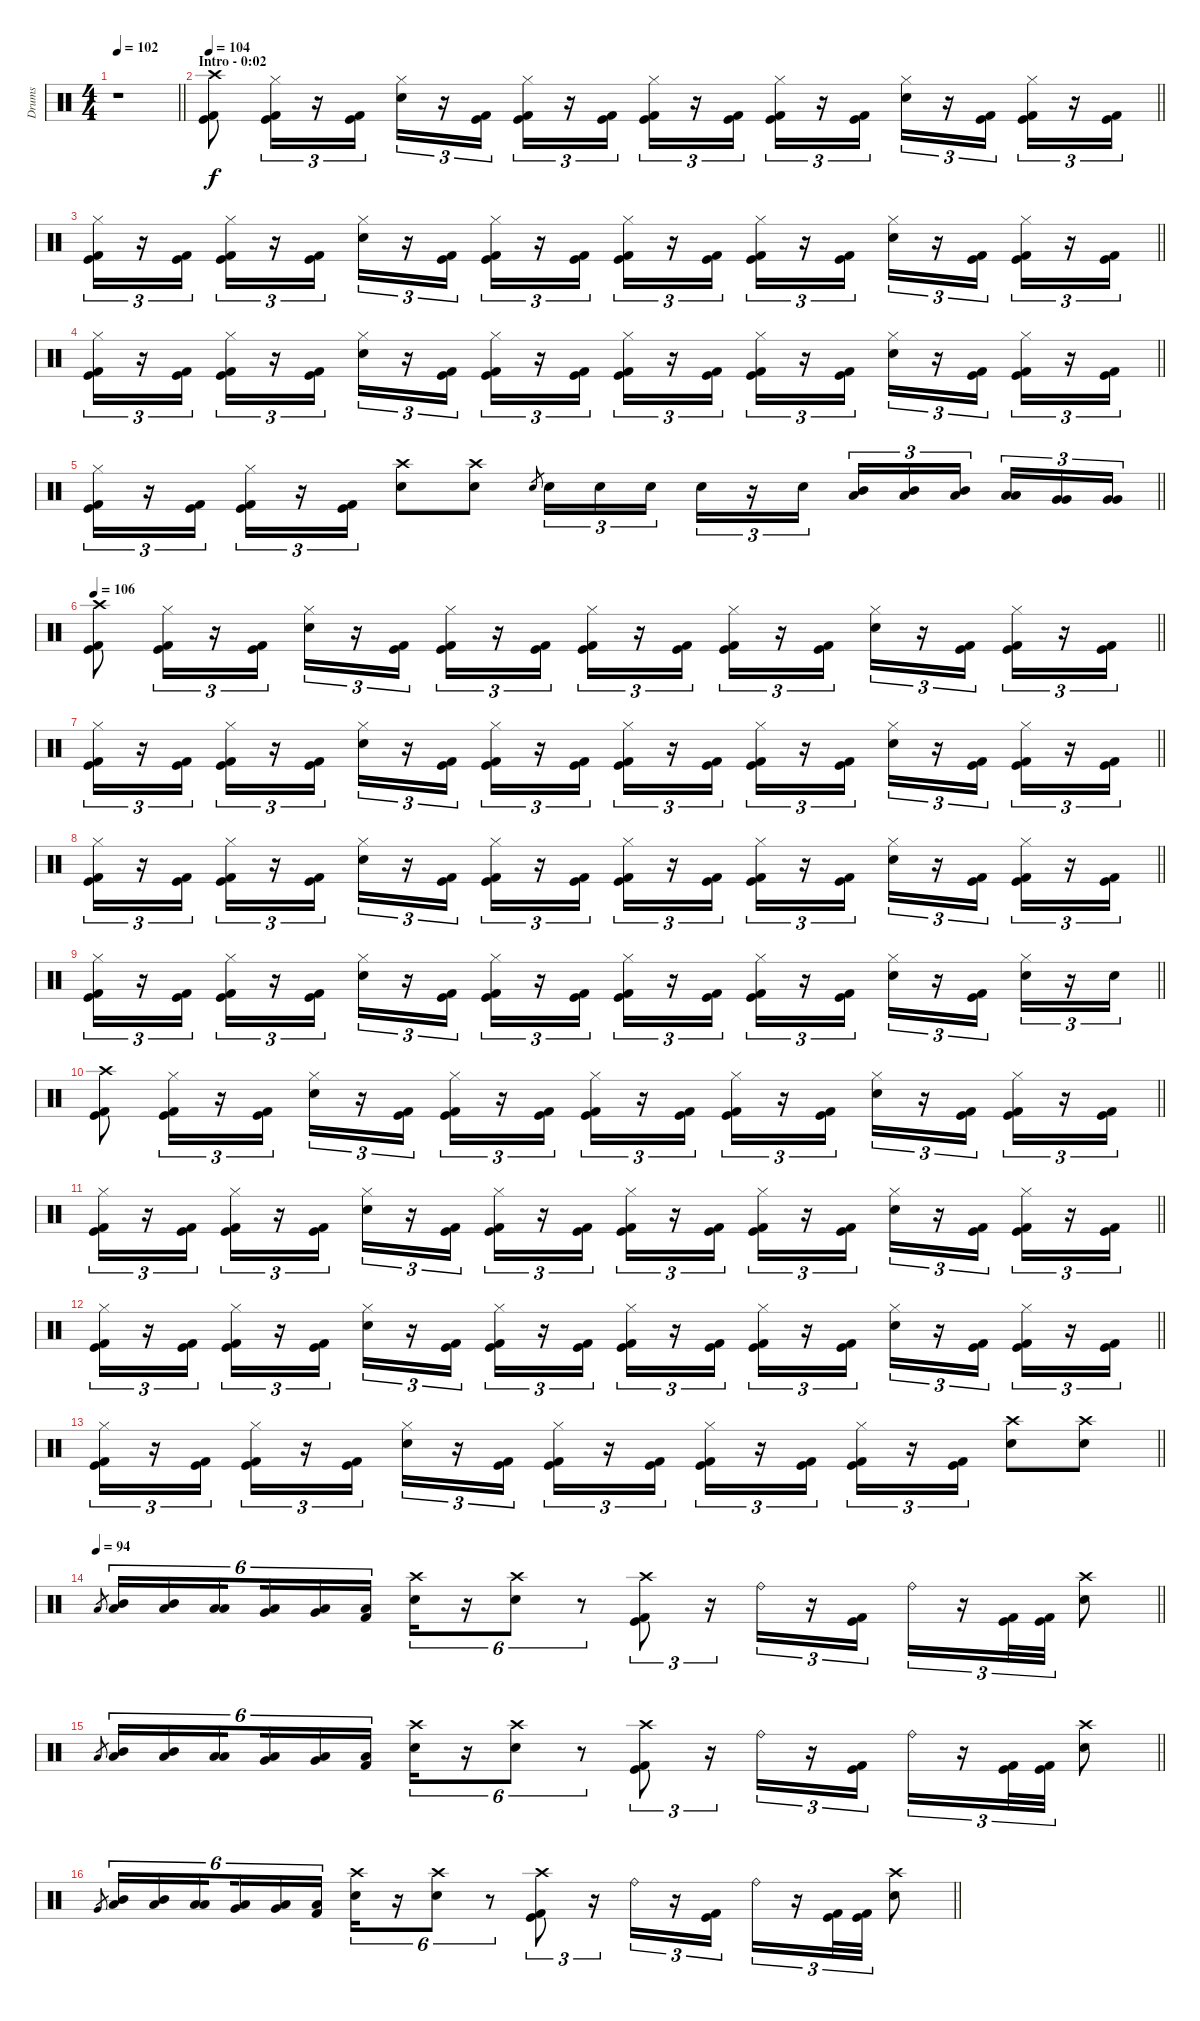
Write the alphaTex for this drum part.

\track ("Drums" "Drums") {instrument percussion}
\staff {score}
\articulation defaults
\ts (4 4)
\tempo 102
\clef neutral
\barLineRight lightlight
\ks c
r.1{dy f} |
\section ("" "Intro - 0:02")
\tempo 104
\barLineRight lightlight
("Crash high (hit)" "Kick (hit)" "Kick (hit) 2").8 ("Hi-Hat (closed)" "Kick (hit)" "Kick (hit) 2").16{tu (3 2)} r.16{tu (3 2)} ("Kick (hit)" "Kick (hit) 2").16{tu (3 2)} ("Hi-Hat (closed)" "Electric Snare (hit)").16{tu (3 2)} r.16{tu (3 2)} ("Kick (hit)" "Kick (hit) 2").16{tu (3 2)} ("Hi-Hat (closed)" "Kick (hit)" "Kick (hit) 2").16{tu (3 2)} r.16{tu (3 2)} ("Kick (hit)" "Kick (hit) 2").16{tu (3 2)} ("Hi-Hat (closed)" "Kick (hit)" "Kick (hit) 2").16{tu (3 2)} r.16{tu (3 2)} ("Kick (hit)" "Kick (hit) 2").16{tu (3 2)} ("Hi-Hat (closed)" "Kick (hit)" "Kick (hit) 2").16{tu (3 2)} r.16{tu (3 2)} ("Kick (hit)" "Kick (hit) 2").16{tu (3 2)} ("Hi-Hat (closed)" "Electric Snare (hit)").16{tu (3 2)} r.16{tu (3 2)} ("Kick (hit)" "Kick (hit) 2").16{tu (3 2)} ("Hi-Hat (closed)" "Kick (hit)" "Kick (hit) 2").16{tu (3 2)} r.16{tu (3 2)} ("Kick (hit)" "Kick (hit) 2").16{tu (3 2)} |
\barLineRight lightlight
("Hi-Hat (closed)" "Kick (hit)" "Kick (hit) 2").16{tu (3 2)} r.16{tu (3 2)} ("Kick (hit)" "Kick (hit) 2").16{tu (3 2)} ("Hi-Hat (closed)" "Kick (hit)" "Kick (hit) 2").16{tu (3 2)} r.16{tu (3 2)} ("Kick (hit)" "Kick (hit) 2").16{tu (3 2)} ("Hi-Hat (closed)" "Electric Snare (hit)").16{tu (3 2)} r.16{tu (3 2)} ("Kick (hit)" "Kick (hit) 2").16{tu (3 2)} ("Hi-Hat (closed)" "Kick (hit)" "Kick (hit) 2").16{tu (3 2)} r.16{tu (3 2)} ("Kick (hit)" "Kick (hit) 2").16{tu (3 2)} ("Hi-Hat (closed)" "Kick (hit)" "Kick (hit) 2").16{tu (3 2)} r.16{tu (3 2)} ("Kick (hit)" "Kick (hit) 2").16{tu (3 2)} ("Hi-Hat (closed)" "Kick (hit)" "Kick (hit) 2").16{tu (3 2)} r.16{tu (3 2)} ("Kick (hit)" "Kick (hit) 2").16{tu (3 2)} ("Hi-Hat (closed)" "Electric Snare (hit)").16{tu (3 2)} r.16{tu (3 2)} ("Kick (hit)" "Kick (hit) 2").16{tu (3 2)} ("Hi-Hat (closed)" "Kick (hit)" "Kick (hit) 2").16{tu (3 2)} r.16{tu (3 2)} ("Kick (hit)" "Kick (hit) 2").16{tu (3 2)} |
\barLineRight lightlight
("Hi-Hat (closed)" "Kick (hit)" "Kick (hit) 2").16{tu (3 2)} r.16{tu (3 2)} ("Kick (hit)" "Kick (hit) 2").16{tu (3 2)} ("Hi-Hat (closed)" "Kick (hit)" "Kick (hit) 2").16{tu (3 2)} r.16{tu (3 2)} ("Kick (hit)" "Kick (hit) 2").16{tu (3 2)} ("Hi-Hat (closed)" "Electric Snare (hit)").16{tu (3 2)} r.16{tu (3 2)} ("Kick (hit)" "Kick (hit) 2").16{tu (3 2)} ("Hi-Hat (closed)" "Kick (hit)" "Kick (hit) 2").16{tu (3 2)} r.16{tu (3 2)} ("Kick (hit)" "Kick (hit) 2").16{tu (3 2)} ("Hi-Hat (closed)" "Kick (hit)" "Kick (hit) 2").16{tu (3 2)} r.16{tu (3 2)} ("Kick (hit)" "Kick (hit) 2").16{tu (3 2)} ("Hi-Hat (closed)" "Kick (hit)" "Kick (hit) 2").16{tu (3 2)} r.16{tu (3 2)} ("Kick (hit)" "Kick (hit) 2").16{tu (3 2)} ("Hi-Hat (closed)" "Electric Snare (hit)").16{tu (3 2)} r.16{tu (3 2)} ("Kick (hit)" "Kick (hit) 2").16{tu (3 2)} ("Hi-Hat (closed)" "Kick (hit)" "Kick (hit) 2").16{tu (3 2)} r.16{tu (3 2)} ("Kick (hit)" "Kick (hit) 2").16{tu (3 2)} |
\barLineRight lightlight
("Hi-Hat (closed)" "Kick (hit)" "Kick (hit) 2").16{tu (3 2)} r.16{tu (3 2)} ("Kick (hit)" "Kick (hit) 2").16{tu (3 2)} ("Hi-Hat (closed)" "Kick (hit)" "Kick (hit) 2").16{tu (3 2)} r.16{tu (3 2)} ("Kick (hit)" "Kick (hit) 2").16{tu (3 2)} ("Crash high (hit)" "Electric Snare (hit)").8 ("Crash high (hit)" "Electric Snare (hit)").8 "Electric Snare (hit)".8{gr} "Electric Snare (hit)".16{tu (3 2)} "Electric Snare (hit)".16{tu (3 2)} "Electric Snare (hit)".16{tu (3 2) beam splitsecondary} "Electric Snare (hit)".16{tu (3 2)} r.16{tu (3 2)} "Electric Snare (hit)".16{tu (3 2)} ("Mid Tom (hit)" "Low Tom (hit)").16{tu (3 2)} ("Mid Tom (hit)" "Low Tom (hit)").16{tu (3 2)} ("Mid Tom (hit)" "Low Tom (hit)").16{tu (3 2) beam splitsecondary} ("Low Tom (hit)" "Low Tom (hit)").16{tu (3 2)} ("Very Low Tom (hit)" "Very Low Tom (hit)").16{tu (3 2)} ("Very Low Tom (hit)" "Very Low Tom (hit)").16{tu (3 2)} |
\tempo 106
\barLineRight lightlight
("Crash high (hit)" "Kick (hit)" "Kick (hit) 2").8 ("Hi-Hat (closed)" "Kick (hit)" "Kick (hit) 2").16{tu (3 2)} r.16{tu (3 2)} ("Kick (hit)" "Kick (hit) 2").16{tu (3 2)} ("Hi-Hat (closed)" "Electric Snare (hit)").16{tu (3 2)} r.16{tu (3 2)} ("Kick (hit)" "Kick (hit) 2").16{tu (3 2)} ("Hi-Hat (closed)" "Kick (hit)" "Kick (hit) 2").16{tu (3 2)} r.16{tu (3 2)} ("Kick (hit)" "Kick (hit) 2").16{tu (3 2)} ("Hi-Hat (closed)" "Kick (hit)" "Kick (hit) 2").16{tu (3 2)} r.16{tu (3 2)} ("Kick (hit)" "Kick (hit) 2").16{tu (3 2)} ("Hi-Hat (closed)" "Kick (hit)" "Kick (hit) 2").16{tu (3 2)} r.16{tu (3 2)} ("Kick (hit)" "Kick (hit) 2").16{tu (3 2)} ("Hi-Hat (closed)" "Electric Snare (hit)").16{tu (3 2)} r.16{tu (3 2)} ("Kick (hit)" "Kick (hit) 2").16{tu (3 2)} ("Hi-Hat (closed)" "Kick (hit)" "Kick (hit) 2").16{tu (3 2)} r.16{tu (3 2)} ("Kick (hit)" "Kick (hit) 2").16{tu (3 2)} |
\barLineRight lightlight
("Hi-Hat (closed)" "Kick (hit)" "Kick (hit) 2").16{tu (3 2)} r.16{tu (3 2)} ("Kick (hit)" "Kick (hit) 2").16{tu (3 2)} ("Hi-Hat (closed)" "Kick (hit)" "Kick (hit) 2").16{tu (3 2)} r.16{tu (3 2)} ("Kick (hit)" "Kick (hit) 2").16{tu (3 2)} ("Hi-Hat (closed)" "Electric Snare (hit)").16{tu (3 2)} r.16{tu (3 2)} ("Kick (hit)" "Kick (hit) 2").16{tu (3 2)} ("Hi-Hat (closed)" "Kick (hit)" "Kick (hit) 2").16{tu (3 2)} r.16{tu (3 2)} ("Kick (hit)" "Kick (hit) 2").16{tu (3 2)} ("Hi-Hat (closed)" "Kick (hit)" "Kick (hit) 2").16{tu (3 2)} r.16{tu (3 2)} ("Kick (hit)" "Kick (hit) 2").16{tu (3 2)} ("Hi-Hat (closed)" "Kick (hit)" "Kick (hit) 2").16{tu (3 2)} r.16{tu (3 2)} ("Kick (hit)" "Kick (hit) 2").16{tu (3 2)} ("Hi-Hat (closed)" "Electric Snare (hit)").16{tu (3 2)} r.16{tu (3 2)} ("Kick (hit)" "Kick (hit) 2").16{tu (3 2)} ("Hi-Hat (closed)" "Kick (hit)" "Kick (hit) 2").16{tu (3 2)} r.16{tu (3 2)} ("Kick (hit)" "Kick (hit) 2").16{tu (3 2)} |
\barLineRight lightlight
("Hi-Hat (closed)" "Kick (hit)" "Kick (hit) 2").16{tu (3 2)} r.16{tu (3 2)} ("Kick (hit)" "Kick (hit) 2").16{tu (3 2)} ("Hi-Hat (closed)" "Kick (hit)" "Kick (hit) 2").16{tu (3 2)} r.16{tu (3 2)} ("Kick (hit)" "Kick (hit) 2").16{tu (3 2)} ("Hi-Hat (closed)" "Electric Snare (hit)").16{tu (3 2)} r.16{tu (3 2)} ("Kick (hit)" "Kick (hit) 2").16{tu (3 2)} ("Hi-Hat (closed)" "Kick (hit)" "Kick (hit) 2").16{tu (3 2)} r.16{tu (3 2)} ("Kick (hit)" "Kick (hit) 2").16{tu (3 2)} ("Hi-Hat (closed)" "Kick (hit)" "Kick (hit) 2").16{tu (3 2)} r.16{tu (3 2)} ("Kick (hit)" "Kick (hit) 2").16{tu (3 2)} ("Hi-Hat (closed)" "Kick (hit)" "Kick (hit) 2").16{tu (3 2)} r.16{tu (3 2)} ("Kick (hit)" "Kick (hit) 2").16{tu (3 2)} ("Hi-Hat (closed)" "Electric Snare (hit)").16{tu (3 2)} r.16{tu (3 2)} ("Kick (hit)" "Kick (hit) 2").16{tu (3 2)} ("Hi-Hat (closed)" "Kick (hit)" "Kick (hit) 2").16{tu (3 2)} r.16{tu (3 2)} ("Kick (hit)" "Kick (hit) 2").16{tu (3 2)} |
\barLineRight lightlight
("Hi-Hat (closed)" "Kick (hit)" "Kick (hit) 2").16{tu (3 2)} r.16{tu (3 2)} ("Kick (hit)" "Kick (hit) 2").16{tu (3 2)} ("Hi-Hat (closed)" "Kick (hit)" "Kick (hit) 2").16{tu (3 2)} r.16{tu (3 2)} ("Kick (hit)" "Kick (hit) 2").16{tu (3 2)} ("Hi-Hat (closed)" "Electric Snare (hit)").16{tu (3 2)} r.16{tu (3 2)} ("Kick (hit)" "Kick (hit) 2").16{tu (3 2)} ("Hi-Hat (closed)" "Kick (hit)" "Kick (hit) 2").16{tu (3 2)} r.16{tu (3 2)} ("Kick (hit)" "Kick (hit) 2").16{tu (3 2)} ("Hi-Hat (closed)" "Kick (hit)" "Kick (hit) 2").16{tu (3 2)} r.16{tu (3 2)} ("Kick (hit)" "Kick (hit) 2").16{tu (3 2)} ("Hi-Hat (closed)" "Kick (hit)" "Kick (hit) 2").16{tu (3 2)} r.16{tu (3 2)} ("Kick (hit)" "Kick (hit) 2").16{tu (3 2)} ("Hi-Hat (closed)" "Electric Snare (hit)").16{tu (3 2)} r.16{tu (3 2)} ("Kick (hit)" "Kick (hit) 2").16{tu (3 2)} ("Hi-Hat (closed)" "Electric Snare (hit)").16{tu (3 2)} r.16{tu (3 2)} "Electric Snare (hit)".16{tu (3 2)} |
\barLineRight lightlight
("Crash high (hit)" "Kick (hit)" "Kick (hit) 2").8 ("Hi-Hat (closed)" "Kick (hit)" "Kick (hit) 2").16{tu (3 2)} r.16{tu (3 2)} ("Kick (hit)" "Kick (hit) 2").16{tu (3 2)} ("Hi-Hat (closed)" "Electric Snare (hit)").16{tu (3 2)} r.16{tu (3 2)} ("Kick (hit)" "Kick (hit) 2").16{tu (3 2)} ("Hi-Hat (closed)" "Kick (hit)" "Kick (hit) 2").16{tu (3 2)} r.16{tu (3 2)} ("Kick (hit)" "Kick (hit) 2").16{tu (3 2)} ("Hi-Hat (closed)" "Kick (hit)" "Kick (hit) 2").16{tu (3 2)} r.16{tu (3 2)} ("Kick (hit)" "Kick (hit) 2").16{tu (3 2)} ("Hi-Hat (closed)" "Kick (hit)" "Kick (hit) 2").16{tu (3 2)} r.16{tu (3 2)} ("Kick (hit)" "Kick (hit) 2").16{tu (3 2)} ("Hi-Hat (closed)" "Electric Snare (hit)").16{tu (3 2)} r.16{tu (3 2)} ("Kick (hit)" "Kick (hit) 2").16{tu (3 2)} ("Hi-Hat (closed)" "Kick (hit)" "Kick (hit) 2").16{tu (3 2)} r.16{tu (3 2)} ("Kick (hit)" "Kick (hit) 2").16{tu (3 2)} |
\barLineRight lightlight
("Hi-Hat (closed)" "Kick (hit)" "Kick (hit) 2").16{tu (3 2)} r.16{tu (3 2)} ("Kick (hit)" "Kick (hit) 2").16{tu (3 2)} ("Hi-Hat (closed)" "Kick (hit)" "Kick (hit) 2").16{tu (3 2)} r.16{tu (3 2)} ("Kick (hit)" "Kick (hit) 2").16{tu (3 2)} ("Hi-Hat (closed)" "Electric Snare (hit)").16{tu (3 2)} r.16{tu (3 2)} ("Kick (hit)" "Kick (hit) 2").16{tu (3 2)} ("Hi-Hat (closed)" "Kick (hit)" "Kick (hit) 2").16{tu (3 2)} r.16{tu (3 2)} ("Kick (hit)" "Kick (hit) 2").16{tu (3 2)} ("Hi-Hat (closed)" "Kick (hit)" "Kick (hit) 2").16{tu (3 2)} r.16{tu (3 2)} ("Kick (hit)" "Kick (hit) 2").16{tu (3 2)} ("Hi-Hat (closed)" "Kick (hit)" "Kick (hit) 2").16{tu (3 2)} r.16{tu (3 2)} ("Kick (hit)" "Kick (hit) 2").16{tu (3 2)} ("Hi-Hat (closed)" "Electric Snare (hit)").16{tu (3 2)} r.16{tu (3 2)} ("Kick (hit)" "Kick (hit) 2").16{tu (3 2)} ("Hi-Hat (closed)" "Kick (hit)" "Kick (hit) 2").16{tu (3 2)} r.16{tu (3 2)} ("Kick (hit)" "Kick (hit) 2").16{tu (3 2)} |
\barLineRight lightlight
("Hi-Hat (closed)" "Kick (hit)" "Kick (hit) 2").16{tu (3 2)} r.16{tu (3 2)} ("Kick (hit)" "Kick (hit) 2").16{tu (3 2)} ("Hi-Hat (closed)" "Kick (hit)" "Kick (hit) 2").16{tu (3 2)} r.16{tu (3 2)} ("Kick (hit)" "Kick (hit) 2").16{tu (3 2)} ("Hi-Hat (closed)" "Electric Snare (hit)").16{tu (3 2)} r.16{tu (3 2)} ("Kick (hit)" "Kick (hit) 2").16{tu (3 2)} ("Hi-Hat (closed)" "Kick (hit)" "Kick (hit) 2").16{tu (3 2)} r.16{tu (3 2)} ("Kick (hit)" "Kick (hit) 2").16{tu (3 2)} ("Hi-Hat (closed)" "Kick (hit)" "Kick (hit) 2").16{tu (3 2)} r.16{tu (3 2)} ("Kick (hit)" "Kick (hit) 2").16{tu (3 2)} ("Hi-Hat (closed)" "Kick (hit)" "Kick (hit) 2").16{tu (3 2)} r.16{tu (3 2)} ("Kick (hit)" "Kick (hit) 2").16{tu (3 2)} ("Hi-Hat (closed)" "Electric Snare (hit)").16{tu (3 2)} r.16{tu (3 2)} ("Kick (hit)" "Kick (hit) 2").16{tu (3 2)} ("Hi-Hat (closed)" "Kick (hit)" "Kick (hit) 2").16{tu (3 2)} r.16{tu (3 2)} ("Kick (hit)" "Kick (hit) 2").16{tu (3 2)} |
\barLineRight lightlight
("Hi-Hat (closed)" "Kick (hit)" "Kick (hit) 2").16{tu (3 2)} r.16{tu (3 2)} ("Kick (hit)" "Kick (hit) 2").16{tu (3 2)} ("Hi-Hat (closed)" "Kick (hit)" "Kick (hit) 2").16{tu (3 2)} r.16{tu (3 2)} ("Kick (hit)" "Kick (hit) 2").16{tu (3 2)} ("Hi-Hat (closed)" "Electric Snare (hit)").16{tu (3 2)} r.16{tu (3 2)} ("Kick (hit)" "Kick (hit) 2").16{tu (3 2)} ("Hi-Hat (closed)" "Kick (hit)" "Kick (hit) 2").16{tu (3 2)} r.16{tu (3 2)} ("Kick (hit)" "Kick (hit) 2").16{tu (3 2)} ("Hi-Hat (closed)" "Kick (hit)" "Kick (hit) 2").16{tu (3 2)} r.16{tu (3 2)} ("Kick (hit)" "Kick (hit) 2").16{tu (3 2)} ("Hi-Hat (closed)" "Kick (hit)" "Kick (hit) 2").16{tu (3 2)} r.16{tu (3 2)} ("Kick (hit)" "Kick (hit) 2").16{tu (3 2)} ("Crash high (hit)" "Electric Snare (hit)").8 ("Crash high (hit)" "Electric Snare (hit)").8 |
\tempo 94
\barLineRight lightlight "Low Tom (hit)".8{gr}
("Mid Tom (hit)" "Low Tom (hit)").16{tu (6 4)} ("Mid Tom (hit)" "Low Tom (hit)").16{tu (6 4)} ("Low Tom (hit)" "Low Tom (hit)").16{tu (6 4) beam splitsecondary} ("Very Low Tom (hit)" "Low Tom (hit)").16{tu (6 4)} ("Very Low Tom (hit)" "Low Tom (hit)").16{tu (6 4)} ("Low Floor Tom (hit)" "Kick (hit) 2").16{tu (6 4)} ("Crash high (hit)" "Electric Snare (hit)").16{tu (6 4)} r.16{tu (6 4)} ("Crash high (hit)" "Electric Snare (hit)").8{tu (6 4)} r.8{tu (6 4)} ("Crash high (hit)" "Kick (hit)" "Kick (hit) 2").8{tu (3 2)} r.16{tu (3 2)} "Ride (bell)".16{tu (3 2)} r.16{tu (3 2)} ("Kick (hit)" "Kick (hit) 2").16{tu (3 2)} "Ride (bell)".16{tu (3 2)} r.16{tu (3 2)} ("Kick (hit)" "Kick (hit) 2").32{tu (3 2)} ("Kick (hit)" "Kick (hit) 2").32{tu (3 2)} ("Crash high (hit)" "Electric Snare (hit)").8 |
\barLineRight lightlight "Low Tom (hit)".8{gr}
("Mid Tom (hit)" "Low Tom (hit)").16{tu (6 4)} ("Mid Tom (hit)" "Low Tom (hit)").16{tu (6 4)} ("Low Tom (hit)" "Low Tom (hit)").16{tu (6 4) beam splitsecondary} ("Very Low Tom (hit)" "Low Tom (hit)").16{tu (6 4)} ("Very Low Tom (hit)" "Low Tom (hit)").16{tu (6 4)} ("Low Floor Tom (hit)" "Kick (hit) 2").16{tu (6 4)} ("Crash high (hit)" "Electric Snare (hit)").16{tu (6 4)} r.16{tu (6 4)} ("Crash high (hit)" "Electric Snare (hit)").8{tu (6 4)} r.8{tu (6 4)} ("Crash high (hit)" "Kick (hit)" "Kick (hit) 2").8{tu (3 2)} r.16{tu (3 2)} "Ride (bell)".16{tu (3 2)} r.16{tu (3 2)} ("Kick (hit)" "Kick (hit) 2").16{tu (3 2)} "Ride (bell)".16{tu (3 2)} r.16{tu (3 2)} ("Kick (hit)" "Kick (hit) 2").32{tu (3 2)} ("Kick (hit)" "Kick (hit) 2").32{tu (3 2)} ("Crash high (hit)" "Electric Snare (hit)").8 |
\barLineRight lightlight "Very Low Tom (hit)".8{gr}
("Mid Tom (hit)" "Low Tom (hit)").16{tu (6 4)} ("Mid Tom (hit)" "Low Tom (hit)").16{tu (6 4)} ("Low Tom (hit)" "Low Tom (hit)").16{tu (6 4) beam splitsecondary} ("Very Low Tom (hit)" "Low Tom (hit)").16{tu (6 4)} ("Very Low Tom (hit)" "Low Tom (hit)").16{tu (6 4)} ("Low Floor Tom (hit)" "Kick (hit) 2").16{tu (6 4)} ("Crash high (hit)" "Electric Snare (hit)").16{tu (6 4)} r.16{tu (6 4)} ("Crash high (hit)" "Electric Snare (hit)").8{tu (6 4)} r.8{tu (6 4)} ("Crash high (hit)" "Kick (hit)" "Kick (hit) 2").8{tu (3 2)} r.16{tu (3 2)} "Ride (bell)".16{tu (3 2)} r.16{tu (3 2)} ("Kick (hit)" "Kick (hit) 2").16{tu (3 2)} "Ride (bell)".16{tu (3 2)} r.16{tu (3 2)} ("Kick (hit)" "Kick (hit) 2").32{tu (3 2)} ("Kick (hit)" "Kick (hit) 2").32{tu (3 2)} ("Crash high (hit)" "Electric Snare (hit)").8
